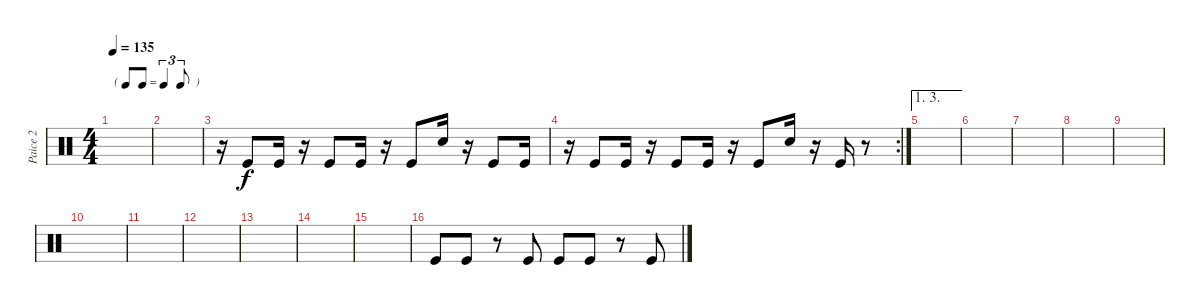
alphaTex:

\track ("Paice 2" "Paice 2") {instrument percussion}
\staff {score}
\articulation defaults
\ts (4 4)
\tf triplet8th
\tempo 135
\clef neutral
\ks c
|
|
r.16 "Kick (hit)".8 "Kick (hit)".16 r.16 "Kick (hit)".8 "Kick (hit)".16 r.16 "Kick (hit)".8 "Snare (hit) 2".16 r.16 "Kick (hit)".8 "Kick (hit)".16 |
\rc 2
r.16 "Kick (hit)".8 "Kick (hit)".16 r.16 "Kick (hit)".8 "Kick (hit)".16 r.16 "Kick (hit)".8 "Snare (hit) 2".16 r.16 "Kick (hit)".16 r.8 |
\ae (1 3)
|
|
|
|
|
|
|
|
|
|
|
"Kick (hit)".8 "Kick (hit)".8 r.8 "Kick (hit)".8 "Kick (hit)".8 "Kick (hit)".8 r.8 "Kick (hit)".8
